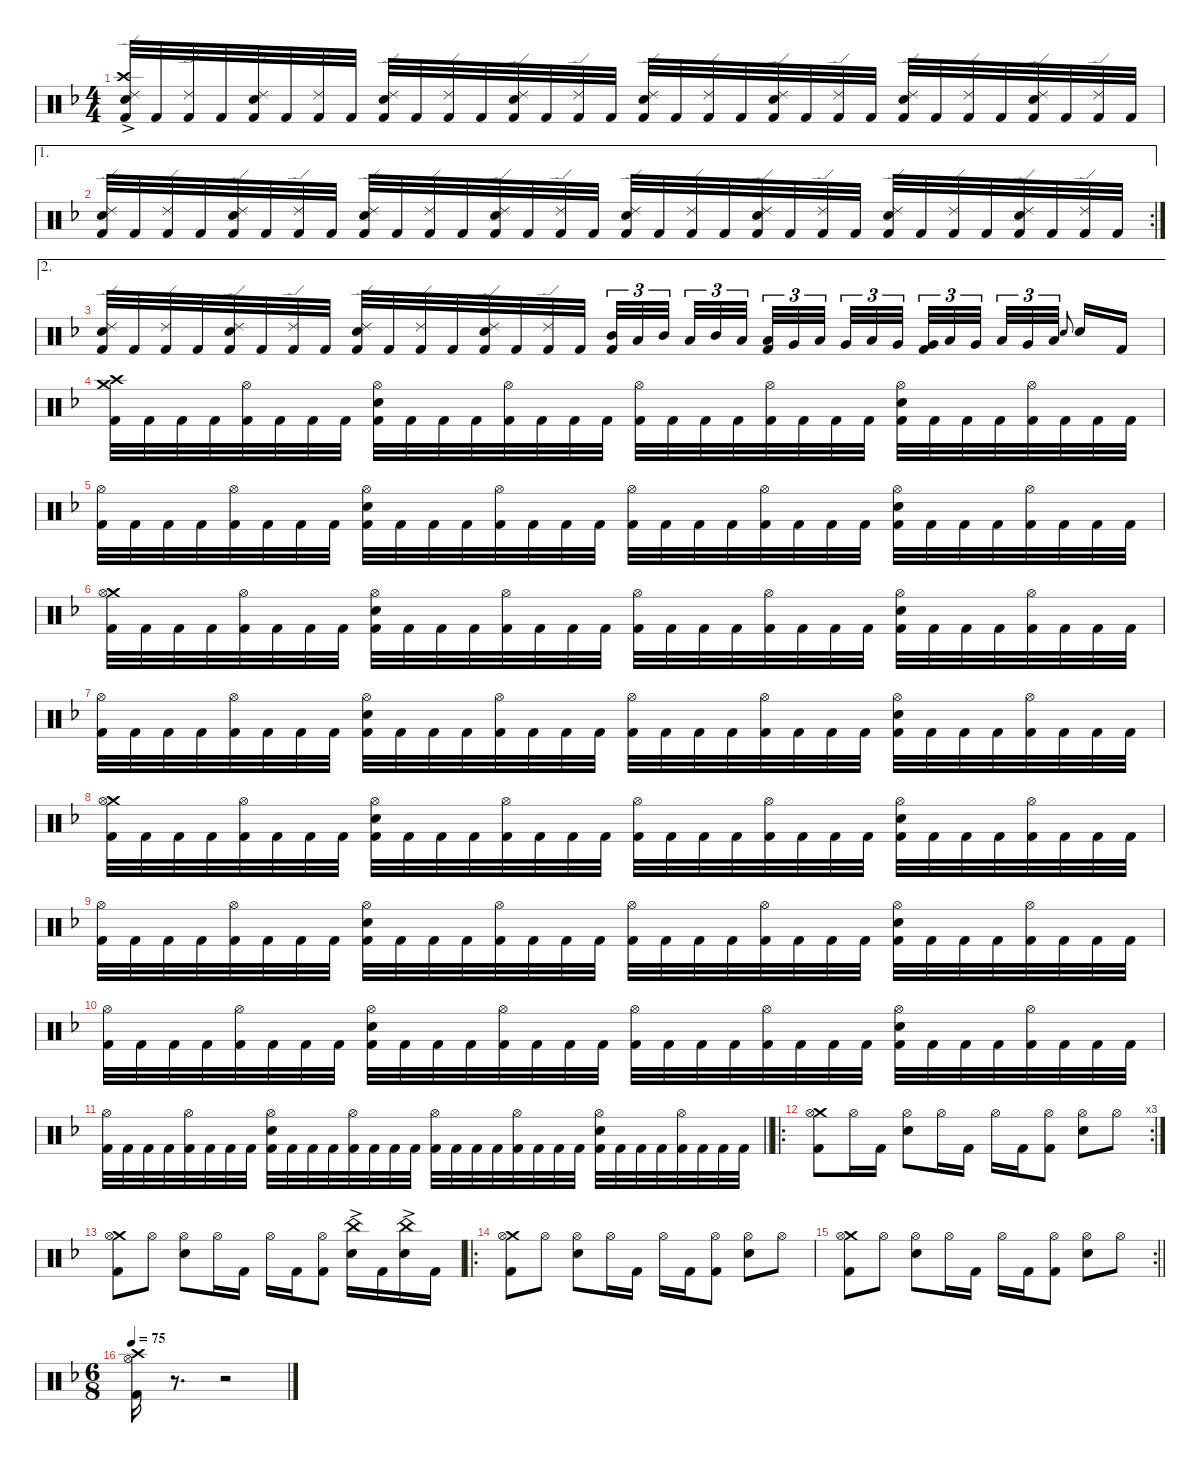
\defaultSystemsLayout 4
\hideDynamics
\bracketExtendMode nobrackets
\singleTrackTrackNamePolicy hidden
\multiTrackTrackNamePolicy hidden
\otherSystemsTrackNameOrientation horizontal
\track ("Martin Lopez - Drums" "drm.") {defaultSystemsLayout 4 instrument percussion}
\staff {score}
\articulation defaults
\ts (4 4)
\tempo (85 hide)
\clef neutral
\ks dminor
("Ride (edge) 2"{acc forcenatural} "Crash high (hit)"{ac acc forcenatural} "Snare (hit) 2"{acc forcenatural} "Kick (hit) 2"{acc forcenatural}).32{dy f beam Up} "Kick (hit) 2"{acc forcenatural}.32{beam Up} ("Ride (edge) 2"{acc forcenatural} "Kick (hit) 2"{acc forcenatural}).32{beam Up} "Kick (hit) 2"{acc forcenatural}.32{beam Up} ("Ride (edge) 2"{acc forcenatural} "Snare (hit) 2"{acc forcenatural} "Kick (hit) 2"{acc forcenatural}).32{beam Up} "Kick (hit) 2"{acc forcenatural}.32{beam Up} ("Ride (edge) 2"{acc forcenatural} "Kick (hit) 2"{acc forcenatural}).32{beam Up} "Kick (hit) 2"{acc forcenatural}.32{beam Up} ("Ride (edge) 2"{acc forcenatural} "Snare (hit) 2"{acc forcenatural} "Kick (hit) 2"{acc forcenatural}).32{beam Up} "Kick (hit) 2"{acc forcenatural}.32{beam Up} ("Ride (edge) 2"{acc forcenatural} "Kick (hit) 2"{acc forcenatural}).32{beam Up} "Kick (hit) 2"{acc forcenatural}.32{beam Up} ("Ride (edge) 2"{acc forcenatural} "Snare (hit) 2"{acc forcenatural} "Kick (hit) 2"{acc forcenatural}).32{beam Up} "Kick (hit) 2"{acc forcenatural}.32{beam Up} ("Ride (edge) 2"{acc forcenatural} "Kick (hit) 2"{acc forcenatural}).32{beam Up} "Kick (hit) 2"{acc forcenatural}.32{beam Up} ("Ride (edge) 2"{acc forcenatural} "Snare (hit) 2"{acc forcenatural} "Kick (hit) 2"{acc forcenatural}).32{beam Up} "Kick (hit) 2"{acc forcenatural}.32{beam Up} ("Ride (edge) 2"{acc forcenatural} "Kick (hit) 2"{acc forcenatural}).32{beam Up} "Kick (hit) 2"{acc forcenatural}.32{beam Up} ("Ride (edge) 2"{acc forcenatural} "Snare (hit) 2"{acc forcenatural} "Kick (hit) 2"{acc forcenatural}).32{beam Up} "Kick (hit) 2"{acc forcenatural}.32{beam Up} ("Ride (edge) 2"{acc forcenatural} "Kick (hit) 2"{acc forcenatural}).32{beam Up} "Kick (hit) 2"{acc forcenatural}.32{beam Up} ("Ride (edge) 2"{acc forcenatural} "Snare (hit) 2"{acc forcenatural} "Kick (hit) 2"{acc forcenatural}).32{beam Up} "Kick (hit) 2"{acc forcenatural}.32{beam Up} ("Ride (edge) 2"{acc forcenatural} "Kick (hit) 2"{acc forcenatural}).32{beam Up} "Kick (hit) 2"{acc forcenatural}.32{beam Up} ("Ride (edge) 2"{acc forcenatural} "Snare (hit) 2"{acc forcenatural} "Kick (hit) 2"{acc forcenatural}).32{beam Up} "Kick (hit) 2"{acc forcenatural}.32{beam Up} ("Ride (edge) 2"{acc forcenatural} "Kick (hit) 2"{acc forcenatural}).32{beam Up} "Kick (hit) 2"{acc forcenatural}.32{beam Up} |
\ae 1
\rc 2
\tempo (84 hide)
("Ride (edge) 2"{acc forcenatural} "Snare (hit) 2"{acc forcenatural} "Kick (hit) 2"{acc forcenatural}).32{beam Up} "Kick (hit) 2"{acc forcenatural}.32{beam Up} ("Ride (edge) 2"{acc forcenatural} "Kick (hit) 2"{acc forcenatural}).32{beam Up} "Kick (hit) 2"{acc forcenatural}.32{beam Up} ("Ride (edge) 2"{acc forcenatural} "Snare (hit) 2"{acc forcenatural} "Kick (hit) 2"{acc forcenatural}).32{beam Up} "Kick (hit) 2"{acc forcenatural}.32{beam Up} ("Ride (edge) 2"{acc forcenatural} "Kick (hit) 2"{acc forcenatural}).32{beam Up} "Kick (hit) 2"{acc forcenatural}.32{beam Up} ("Ride (edge) 2"{acc forcenatural} "Snare (hit) 2"{acc forcenatural} "Kick (hit) 2"{acc forcenatural}).32{beam Up} "Kick (hit) 2"{acc forcenatural}.32{beam Up} ("Ride (edge) 2"{acc forcenatural} "Kick (hit) 2"{acc forcenatural}).32{beam Up} "Kick (hit) 2"{acc forcenatural}.32{beam Up} ("Ride (edge) 2"{acc forcenatural} "Snare (hit) 2"{acc forcenatural} "Kick (hit) 2"{acc forcenatural}).32{beam Up} "Kick (hit) 2"{acc forcenatural}.32{beam Up} ("Ride (edge) 2"{acc forcenatural} "Kick (hit) 2"{acc forcenatural}).32{beam Up} "Kick (hit) 2"{acc forcenatural}.32{beam Up} ("Ride (edge) 2"{acc forcenatural} "Snare (hit) 2"{acc forcenatural} "Kick (hit) 2"{acc forcenatural}).32{beam Up} "Kick (hit) 2"{acc forcenatural}.32{beam Up} ("Ride (edge) 2"{acc forcenatural} "Kick (hit) 2"{acc forcenatural}).32{beam Up} "Kick (hit) 2"{acc forcenatural}.32{beam Up} ("Ride (edge) 2"{acc forcenatural} "Snare (hit) 2"{acc forcenatural} "Kick (hit) 2"{acc forcenatural}).32{beam Up} "Kick (hit) 2"{acc forcenatural}.32{beam Up} ("Ride (edge) 2"{acc forcenatural} "Kick (hit) 2"{acc forcenatural}).32{beam Up} "Kick (hit) 2"{acc forcenatural}.32{beam Up} ("Ride (edge) 2"{acc forcenatural} "Snare (hit) 2"{acc forcenatural} "Kick (hit) 2"{acc forcenatural}).32{beam Up} "Kick (hit) 2"{acc forcenatural}.32{beam Up} ("Ride (edge) 2"{acc forcenatural} "Kick (hit) 2"{acc forcenatural}).32{beam Up} "Kick (hit) 2"{acc forcenatural}.32{beam Up} ("Ride (edge) 2"{acc forcenatural} "Snare (hit) 2"{acc forcenatural} "Kick (hit) 2"{acc forcenatural}).32{beam Up} "Kick (hit) 2"{acc forcenatural}.32{beam Up} ("Ride (edge) 2"{acc forcenatural} "Kick (hit) 2"{acc forcenatural}).32{beam Up} "Kick (hit) 2"{acc forcenatural}.32{beam Up} |
\ae 2
\tempo (85 hide)
("Ride (edge) 2"{acc forcenatural} "Snare (hit) 2"{acc forcenatural} "Kick (hit) 2"{acc forcenatural}).32{beam Up} "Kick (hit) 2"{acc forcenatural}.32{beam Up} ("Ride (edge) 2"{acc forcenatural} "Kick (hit) 2"{acc forcenatural}).32{beam Up} "Kick (hit) 2"{acc forcenatural}.32{beam Up} ("Ride (edge) 2"{acc forcenatural} "Snare (hit) 2"{acc forcenatural} "Kick (hit) 2"{acc forcenatural}).32{beam Up} "Kick (hit) 2"{acc forcenatural}.32{beam Up} ("Ride (edge) 2"{acc forcenatural} "Kick (hit) 2"{acc forcenatural}).32{beam Up} "Kick (hit) 2"{acc forcenatural}.32{beam Up} ("Ride (edge) 2"{acc forcenatural} "Snare (hit) 2"{acc forcenatural} "Kick (hit) 2"{acc forcenatural}).32{beam Up} "Kick (hit) 2"{acc forcenatural}.32{beam Up} ("Ride (edge) 2"{acc forcenatural} "Kick (hit) 2"{acc forcenatural}).32{beam Up} "Kick (hit) 2"{acc forcenatural}.32{beam Up} ("Ride (edge) 2"{acc forcenatural} "Snare (hit) 2"{acc forcenatural} "Kick (hit) 2"{acc forcenatural}).32{beam Up} "Kick (hit) 2"{acc forcenatural}.32{beam Up} ("Ride (edge) 2"{acc forcenatural} "Kick (hit) 2"{acc forcenatural}).32{beam Up} "Kick (hit) 2"{acc forcenatural}.32{beam Up} ("Mid Tom (hit)"{acc forcenatural} "Kick (hit) 2"{acc forcenatural}).32{tu (3 2) beam Up} "Low Tom (hit)"{acc forcenatural}.32{tu (3 2) beam Up} "Mid Tom (hit)"{acc forcenatural}.32{tu (3 2) beam Up} "Low Tom (hit)"{acc forcenatural}.32{tu (3 2) beam Up} "Mid Tom (hit)"{acc forcenatural}.32{tu (3 2) beam Up} "Low Tom (hit)"{acc forcenatural}.32{tu (3 2) beam Up} ("Low Tom (hit)"{acc forcenatural} "Kick (hit) 2"{acc forcenatural}).32{tu (3 2) beam Up} "Very Low Tom (hit)"{acc forcenatural}.32{tu (3 2) beam Up} "Low Tom (hit)"{acc forcenatural}.32{tu (3 2) beam Up} "Very Low Tom (hit)"{acc forcenatural}.32{tu (3 2) beam Up} "Low Tom (hit)"{acc forcenatural}.32{tu (3 2) beam Up} "Very Low Tom (hit)"{acc forcenatural}.32{tu (3 2) beam Up} ("Very Low Tom (hit)"{acc forcenatural} "Kick (hit) 2"{acc forcenatural}).32{tu (3 2) beam Up} "Low Floor Tom (hit)"{acc forcenatural}.32{tu (3 2) beam Up} "Very Low Tom (hit)"{acc forcenatural}.32{tu (3 2) beam Up} "Low Floor Tom (hit)"{acc forcenatural}.32{tu (3 2) beam Up} "Very Low Tom (hit)"{acc forcenatural}.32{tu (3 2) beam Up} "Low Floor Tom (hit)"{acc forcenatural}.32{tu (3 2) beam Up} "Electric Snare (hit)"{acc forcenatural}.8{gr onbeat dy mp beam Up} "Snare (hit) 2"{acc forcenatural}.16{dy f beam Up} "Kick (hit) 2"{acc forcenatural}.16{dy fff beam Up} |
\tempo (84 0.00625 hide)
("Crash medium (hit)"{acc forcenatural} "Crash high (hit)"{acc forcenatural} "Kick (hit) 2"{acc forcenatural}).32{dy f beam Down} "Kick (hit) 2"{acc forcenatural}.32{beam Down} "Kick (hit) 2"{acc forcenatural}.32{beam Down} "Kick (hit) 2"{acc forcenatural}.32{beam Down} ("Hi-Hat (open)"{acc forcenatural} "Kick (hit) 2"{acc forcenatural}).32{beam Down} "Kick (hit) 2"{acc forcenatural}.32{beam Down} "Kick (hit) 2"{acc forcenatural}.32{beam Down} "Kick (hit) 2"{acc forcenatural}.32{beam Down} ("Hi-Hat (open)"{acc forcenatural} "Snare (hit) 2"{acc forcenatural} "Kick (hit) 2"{acc forcenatural}).32{beam Down} "Kick (hit) 2"{acc forcenatural}.32{beam Down} "Kick (hit) 2"{acc forcenatural}.32{beam Down} "Kick (hit) 2"{acc forcenatural}.32{beam Down} ("Hi-Hat (open)"{acc forcenatural} "Kick (hit) 2"{acc forcenatural}).32{beam Down} "Kick (hit) 2"{acc forcenatural}.32{beam Down} "Kick (hit) 2"{acc forcenatural}.32{beam Down} "Kick (hit) 2"{acc forcenatural}.32{beam Down} ("Hi-Hat (open)"{acc forcenatural} "Kick (hit) 2"{acc forcenatural}).32{beam Down} "Kick (hit) 2"{acc forcenatural}.32{beam Down} "Kick (hit) 2"{acc forcenatural}.32{beam Down} "Kick (hit) 2"{acc forcenatural}.32{beam Down} ("Hi-Hat (open)"{acc forcenatural} "Kick (hit) 2"{acc forcenatural}).32{beam Down} "Kick (hit) 2"{acc forcenatural}.32{beam Down} "Kick (hit) 2"{acc forcenatural}.32{beam Down} "Kick (hit) 2"{acc forcenatural}.32{beam Down} ("Hi-Hat (open)"{acc forcenatural} "Snare (hit) 2"{acc forcenatural} "Kick (hit) 2"{acc forcenatural}).32{beam Down} "Kick (hit) 2"{acc forcenatural}.32{beam Down} "Kick (hit) 2"{acc forcenatural}.32{beam Down} "Kick (hit) 2"{acc forcenatural}.32{beam Down} ("Hi-Hat (open)"{acc forcenatural} "Kick (hit) 2"{acc forcenatural}).32{beam Down} "Kick (hit) 2"{acc forcenatural}.32{beam Down} "Kick (hit) 2"{acc forcenatural}.32{beam Down} "Kick (hit) 2"{acc forcenatural}.32{beam Down} |
\tempo (85 0.00625 hide)
("Hi-Hat (open)"{acc forcenatural} "Kick (hit) 2"{acc forcenatural}).32{beam Down} "Kick (hit) 2"{acc forcenatural}.32{beam Down} "Kick (hit) 2"{acc forcenatural}.32{beam Down} "Kick (hit) 2"{acc forcenatural}.32{beam Down} ("Hi-Hat (open)"{acc forcenatural} "Kick (hit) 2"{acc forcenatural}).32{beam Down} "Kick (hit) 2"{acc forcenatural}.32{beam Down} "Kick (hit) 2"{acc forcenatural}.32{beam Down} "Kick (hit) 2"{acc forcenatural}.32{beam Down} ("Hi-Hat (open)"{acc forcenatural} "Snare (hit) 2"{acc forcenatural} "Kick (hit) 2"{acc forcenatural}).32{beam Down} "Kick (hit) 2"{acc forcenatural}.32{beam Down} "Kick (hit) 2"{acc forcenatural}.32{beam Down} "Kick (hit) 2"{acc forcenatural}.32{beam Down} ("Hi-Hat (open)"{acc forcenatural} "Kick (hit) 2"{acc forcenatural}).32{beam Down} "Kick (hit) 2"{acc forcenatural}.32{beam Down} "Kick (hit) 2"{acc forcenatural}.32{beam Down} "Kick (hit) 2"{acc forcenatural}.32{beam Down} ("Hi-Hat (open)"{acc forcenatural} "Kick (hit) 2"{acc forcenatural}).32{beam Down} "Kick (hit) 2"{acc forcenatural}.32{beam Down} "Kick (hit) 2"{acc forcenatural}.32{beam Down} "Kick (hit) 2"{acc forcenatural}.32{beam Down} ("Hi-Hat (open)"{acc forcenatural} "Kick (hit) 2"{acc forcenatural}).32{beam Down} "Kick (hit) 2"{acc forcenatural}.32{beam Down} "Kick (hit) 2"{acc forcenatural}.32{beam Down} "Kick (hit) 2"{acc forcenatural}.32{beam Down} ("Hi-Hat (open)"{acc forcenatural} "Snare (hit) 2"{acc forcenatural} "Kick (hit) 2"{acc forcenatural}).32{beam Down} "Kick (hit) 2"{acc forcenatural}.32{beam Down} "Kick (hit) 2"{acc forcenatural}.32{beam Down} "Kick (hit) 2"{acc forcenatural}.32{beam Down} ("Hi-Hat (open)"{acc forcenatural} "Kick (hit) 2"{acc forcenatural}).32{beam Down} "Kick (hit) 2"{acc forcenatural}.32{beam Down} "Kick (hit) 2"{acc forcenatural}.32{beam Down} "Kick (hit) 2"{acc forcenatural}.32{beam Down} |
\tempo (84 0.00625 hide)
("Crash medium (hit)"{acc forcenatural} "Hi-Hat (open)"{acc forcenatural} "Kick (hit) 2"{acc forcenatural}).32{beam Down} "Kick (hit) 2"{acc forcenatural}.32{beam Down} "Kick (hit) 2"{acc forcenatural}.32{beam Down} "Kick (hit) 2"{acc forcenatural}.32{beam Down} ("Hi-Hat (open)"{acc forcenatural} "Kick (hit) 2"{acc forcenatural}).32{beam Down} "Kick (hit) 2"{acc forcenatural}.32{beam Down} "Kick (hit) 2"{acc forcenatural}.32{beam Down} "Kick (hit) 2"{acc forcenatural}.32{beam Down} ("Hi-Hat (open)"{acc forcenatural} "Snare (hit) 2"{acc forcenatural} "Kick (hit) 2"{acc forcenatural}).32{beam Down} "Kick (hit) 2"{acc forcenatural}.32{beam Down} "Kick (hit) 2"{acc forcenatural}.32{beam Down} "Kick (hit) 2"{acc forcenatural}.32{beam Down} ("Hi-Hat (open)"{acc forcenatural} "Kick (hit) 2"{acc forcenatural}).32{beam Down} "Kick (hit) 2"{acc forcenatural}.32{beam Down} "Kick (hit) 2"{acc forcenatural}.32{beam Down} "Kick (hit) 2"{acc forcenatural}.32{beam Down} ("Hi-Hat (open)"{acc forcenatural} "Kick (hit) 2"{acc forcenatural}).32{beam Down} "Kick (hit) 2"{acc forcenatural}.32{beam Down} "Kick (hit) 2"{acc forcenatural}.32{beam Down} "Kick (hit) 2"{acc forcenatural}.32{beam Down} ("Hi-Hat (open)"{acc forcenatural} "Kick (hit) 2"{acc forcenatural}).32{beam Down} "Kick (hit) 2"{acc forcenatural}.32{beam Down} "Kick (hit) 2"{acc forcenatural}.32{beam Down} "Kick (hit) 2"{acc forcenatural}.32{beam Down} ("Hi-Hat (open)"{acc forcenatural} "Snare (hit) 2"{acc forcenatural} "Kick (hit) 2"{acc forcenatural}).32{beam Down} "Kick (hit) 2"{acc forcenatural}.32{beam Down} "Kick (hit) 2"{acc forcenatural}.32{beam Down} "Kick (hit) 2"{acc forcenatural}.32{beam Down} ("Hi-Hat (open)"{acc forcenatural} "Kick (hit) 2"{acc forcenatural}).32{beam Down} "Kick (hit) 2"{acc forcenatural}.32{beam Down} "Kick (hit) 2"{acc forcenatural}.32{beam Down} "Kick (hit) 2"{acc forcenatural}.32{beam Down} |
\tempo (85 hide)
("Hi-Hat (open)"{acc forcenatural} "Kick (hit) 2"{acc forcenatural}).32{beam Down} "Kick (hit) 2"{acc forcenatural}.32{beam Down} "Kick (hit) 2"{acc forcenatural}.32{beam Down} "Kick (hit) 2"{acc forcenatural}.32{beam Down} ("Hi-Hat (open)"{acc forcenatural} "Kick (hit) 2"{acc forcenatural}).32{beam Down} "Kick (hit) 2"{acc forcenatural}.32{beam Down} "Kick (hit) 2"{acc forcenatural}.32{beam Down} "Kick (hit) 2"{acc forcenatural}.32{beam Down} ("Hi-Hat (open)"{acc forcenatural} "Snare (hit) 2"{acc forcenatural} "Kick (hit) 2"{acc forcenatural}).32{beam Down} "Kick (hit) 2"{acc forcenatural}.32{beam Down} "Kick (hit) 2"{acc forcenatural}.32{beam Down} "Kick (hit) 2"{acc forcenatural}.32{beam Down} ("Hi-Hat (open)"{acc forcenatural} "Kick (hit) 2"{acc forcenatural}).32{beam Down} "Kick (hit) 2"{acc forcenatural}.32{beam Down} "Kick (hit) 2"{acc forcenatural}.32{beam Down} "Kick (hit) 2"{acc forcenatural}.32{beam Down} ("Hi-Hat (open)"{acc forcenatural} "Kick (hit) 2"{acc forcenatural}).32{beam Down} "Kick (hit) 2"{acc forcenatural}.32{beam Down} "Kick (hit) 2"{acc forcenatural}.32{beam Down} "Kick (hit) 2"{acc forcenatural}.32{beam Down} ("Hi-Hat (open)"{acc forcenatural} "Kick (hit) 2"{acc forcenatural}).32{beam Down} "Kick (hit) 2"{acc forcenatural}.32{beam Down} "Kick (hit) 2"{acc forcenatural}.32{beam Down} "Kick (hit) 2"{acc forcenatural}.32{beam Down} ("Hi-Hat (open)"{acc forcenatural} "Snare (hit) 2"{acc forcenatural} "Kick (hit) 2"{acc forcenatural}).32{beam Down} "Kick (hit) 2"{acc forcenatural}.32{beam Down} "Kick (hit) 2"{acc forcenatural}.32{beam Down} "Kick (hit) 2"{acc forcenatural}.32{beam Down} ("Hi-Hat (open)"{acc forcenatural} "Kick (hit) 2"{acc forcenatural}).32{beam Down} "Kick (hit) 2"{acc forcenatural}.32{beam Down} "Kick (hit) 2"{acc forcenatural}.32{beam Down} "Kick (hit) 2"{acc forcenatural}.32{beam Down} |
\tempo (84 0.00625 hide)
("Crash medium (hit)"{acc forcenatural} "Hi-Hat (open)"{acc forcenatural} "Kick (hit) 2"{acc forcenatural}).32{beam Down} "Kick (hit) 2"{acc forcenatural}.32{beam Down} "Kick (hit) 2"{acc forcenatural}.32{beam Down} "Kick (hit) 2"{acc forcenatural}.32{beam Down} ("Hi-Hat (open)"{acc forcenatural} "Kick (hit) 2"{acc forcenatural}).32{beam Down} "Kick (hit) 2"{acc forcenatural}.32{beam Down} "Kick (hit) 2"{acc forcenatural}.32{beam Down} "Kick (hit) 2"{acc forcenatural}.32{beam Down} ("Hi-Hat (open)"{acc forcenatural} "Snare (hit) 2"{acc forcenatural} "Kick (hit) 2"{acc forcenatural}).32{beam Down} "Kick (hit) 2"{acc forcenatural}.32{beam Down} "Kick (hit) 2"{acc forcenatural}.32{beam Down} "Kick (hit) 2"{acc forcenatural}.32{beam Down} ("Hi-Hat (open)"{acc forcenatural} "Kick (hit) 2"{acc forcenatural}).32{beam Down} "Kick (hit) 2"{acc forcenatural}.32{beam Down} "Kick (hit) 2"{acc forcenatural}.32{beam Down} "Kick (hit) 2"{acc forcenatural}.32{beam Down} ("Hi-Hat (open)"{acc forcenatural} "Kick (hit) 2"{acc forcenatural}).32{beam Down} "Kick (hit) 2"{acc forcenatural}.32{beam Down} "Kick (hit) 2"{acc forcenatural}.32{beam Down} "Kick (hit) 2"{acc forcenatural}.32{beam Down} ("Hi-Hat (open)"{acc forcenatural} "Kick (hit) 2"{acc forcenatural}).32{beam Down} "Kick (hit) 2"{acc forcenatural}.32{beam Down} "Kick (hit) 2"{acc forcenatural}.32{beam Down} "Kick (hit) 2"{acc forcenatural}.32{beam Down} ("Hi-Hat (open)"{acc forcenatural} "Snare (hit) 2"{acc forcenatural} "Kick (hit) 2"{acc forcenatural}).32{beam Down} "Kick (hit) 2"{acc forcenatural}.32{beam Down} "Kick (hit) 2"{acc forcenatural}.32{beam Down} "Kick (hit) 2"{acc forcenatural}.32{beam Down} ("Hi-Hat (open)"{acc forcenatural} "Kick (hit) 2"{acc forcenatural}).32{beam Down} "Kick (hit) 2"{acc forcenatural}.32{beam Down} "Kick (hit) 2"{acc forcenatural}.32{beam Down} "Kick (hit) 2"{acc forcenatural}.32{beam Down} |
\tempo (85 0.00625 hide)
("Hi-Hat (open)"{acc forcenatural} "Kick (hit) 2"{acc forcenatural}).32{beam Down} "Kick (hit) 2"{acc forcenatural}.32{beam Down} "Kick (hit) 2"{acc forcenatural}.32{beam Down} "Kick (hit) 2"{acc forcenatural}.32{beam Down} ("Hi-Hat (open)"{acc forcenatural} "Kick (hit) 2"{acc forcenatural}).32{beam Down} "Kick (hit) 2"{acc forcenatural}.32{beam Down} "Kick (hit) 2"{acc forcenatural}.32{beam Down} "Kick (hit) 2"{acc forcenatural}.32{beam Down} ("Hi-Hat (open)"{acc forcenatural} "Snare (hit) 2"{acc forcenatural} "Kick (hit) 2"{acc forcenatural}).32{beam Down} "Kick (hit) 2"{acc forcenatural}.32{beam Down} "Kick (hit) 2"{acc forcenatural}.32{beam Down} "Kick (hit) 2"{acc forcenatural}.32{beam Down} ("Hi-Hat (open)"{acc forcenatural} "Kick (hit) 2"{acc forcenatural}).32{beam Down} "Kick (hit) 2"{acc forcenatural}.32{beam Down} "Kick (hit) 2"{acc forcenatural}.32{beam Down} "Kick (hit) 2"{acc forcenatural}.32{beam Down} ("Hi-Hat (open)"{acc forcenatural} "Kick (hit) 2"{acc forcenatural}).32{beam Down} "Kick (hit) 2"{acc forcenatural}.32{beam Down} "Kick (hit) 2"{acc forcenatural}.32{beam Down} "Kick (hit) 2"{acc forcenatural}.32{beam Down} ("Hi-Hat (open)"{acc forcenatural} "Kick (hit) 2"{acc forcenatural}).32{beam Down} "Kick (hit) 2"{acc forcenatural}.32{beam Down} "Kick (hit) 2"{acc forcenatural}.32{beam Down} "Kick (hit) 2"{acc forcenatural}.32{beam Down} ("Hi-Hat (open)"{acc forcenatural} "Snare (hit) 2"{acc forcenatural} "Kick (hit) 2"{acc forcenatural}).32{beam Down} "Kick (hit) 2"{acc forcenatural}.32{beam Down} "Kick (hit) 2"{acc forcenatural}.32{beam Down} "Kick (hit) 2"{acc forcenatural}.32{beam Down} ("Hi-Hat (open)"{acc forcenatural} "Kick (hit) 2"{acc forcenatural}).32{beam Down} "Kick (hit) 2"{acc forcenatural}.32{beam Down} "Kick (hit) 2"{acc forcenatural}.32{beam Down} "Kick (hit) 2"{acc forcenatural}.32{beam Down} |
\tempo (84 hide)
("Hi-Hat (open)"{acc forcenatural} "Kick (hit) 2"{acc forcenatural}).32{beam Down} "Kick (hit) 2"{acc forcenatural}.32{beam Down} "Kick (hit) 2"{acc forcenatural}.32{beam Down} "Kick (hit) 2"{acc forcenatural}.32{beam Down} ("Hi-Hat (open)"{acc forcenatural} "Kick (hit) 2"{acc forcenatural}).32{beam Down} "Kick (hit) 2"{acc forcenatural}.32{beam Down} "Kick (hit) 2"{acc forcenatural}.32{beam Down} "Kick (hit) 2"{acc forcenatural}.32{beam Down} ("Hi-Hat (open)"{acc forcenatural} "Snare (hit) 2"{acc forcenatural} "Kick (hit) 2"{acc forcenatural}).32{beam Down} "Kick (hit) 2"{acc forcenatural}.32{beam Down} "Kick (hit) 2"{acc forcenatural}.32{beam Down} "Kick (hit) 2"{acc forcenatural}.32{beam Down} ("Hi-Hat (open)"{acc forcenatural} "Kick (hit) 2"{acc forcenatural}).32{beam Down} "Kick (hit) 2"{acc forcenatural}.32{beam Down} "Kick (hit) 2"{acc forcenatural}.32{beam Down} "Kick (hit) 2"{acc forcenatural}.32{beam Down} ("Hi-Hat (open)"{acc forcenatural} "Kick (hit) 2"{acc forcenatural}).32{beam Down} "Kick (hit) 2"{acc forcenatural}.32{beam Down} "Kick (hit) 2"{acc forcenatural}.32{beam Down} "Kick (hit) 2"{acc forcenatural}.32{beam Down} ("Hi-Hat (open)"{acc forcenatural} "Kick (hit) 2"{acc forcenatural}).32{beam Down} "Kick (hit) 2"{acc forcenatural}.32{beam Down} "Kick (hit) 2"{acc forcenatural}.32{beam Down} "Kick (hit) 2"{acc forcenatural}.32{beam Down} ("Hi-Hat (open)"{acc forcenatural} "Snare (hit) 2"{acc forcenatural} "Kick (hit) 2"{acc forcenatural}).32{beam Down} "Kick (hit) 2"{acc forcenatural}.32{beam Down} "Kick (hit) 2"{acc forcenatural}.32{beam Down} "Kick (hit) 2"{acc forcenatural}.32{beam Down} ("Hi-Hat (open)"{acc forcenatural} "Kick (hit) 2"{acc forcenatural}).32{beam Down} "Kick (hit) 2"{acc forcenatural}.32{beam Down} "Kick (hit) 2"{acc forcenatural}.32{beam Down} "Kick (hit) 2"{acc forcenatural}.32{beam Down} |
\tempo (85 0.00625 hide)
\barLineRight lightlight
("Hi-Hat (open)"{acc forcenatural} "Kick (hit) 2"{acc forcenatural}).32{beam Down} "Kick (hit) 2"{acc forcenatural}.32{beam Down} "Kick (hit) 2"{acc forcenatural}.32{beam Down} "Kick (hit) 2"{acc forcenatural}.32{beam Down} ("Hi-Hat (open)"{acc forcenatural} "Kick (hit) 2"{acc forcenatural}).32{beam Down} "Kick (hit) 2"{acc forcenatural}.32{beam Down} "Kick (hit) 2"{acc forcenatural}.32{beam Down} "Kick (hit) 2"{acc forcenatural}.32{beam Down} ("Hi-Hat (open)"{acc forcenatural} "Snare (hit) 2"{acc forcenatural} "Kick (hit) 2"{acc forcenatural}).32{beam Down} "Kick (hit) 2"{acc forcenatural}.32{beam Down} "Kick (hit) 2"{acc forcenatural}.32{beam Down} "Kick (hit) 2"{acc forcenatural}.32{beam Down} ("Hi-Hat (open)"{acc forcenatural} "Kick (hit) 2"{acc forcenatural}).32{beam Down} "Kick (hit) 2"{acc forcenatural}.32{beam Down} "Kick (hit) 2"{acc forcenatural}.32{beam Down} "Kick (hit) 2"{acc forcenatural}.32{beam Down} ("Hi-Hat (open)"{acc forcenatural} "Kick (hit) 2"{acc forcenatural}).32{beam Down} "Kick (hit) 2"{acc forcenatural}.32{beam Down} "Kick (hit) 2"{acc forcenatural}.32{beam Down} "Kick (hit) 2"{acc forcenatural}.32{beam Down} ("Hi-Hat (open)"{acc forcenatural} "Kick (hit) 2"{acc forcenatural}).32{beam Down} "Kick (hit) 2"{acc forcenatural}.32{beam Down} "Kick (hit) 2"{acc forcenatural}.32{beam Down} "Kick (hit) 2"{acc forcenatural}.32{beam Down} ("Hi-Hat (open)"{acc forcenatural} "Snare (hit) 2"{acc forcenatural} "Kick (hit) 2"{acc forcenatural}).32{beam Down} "Kick (hit) 2"{acc forcenatural}.32{beam Down} "Kick (hit) 2"{acc forcenatural}.32{beam Down} "Kick (hit) 2"{acc forcenatural}.32{beam Down} ("Hi-Hat (open)"{acc forcenatural} "Kick (hit) 2"{acc forcenatural}).32{beam Down} "Kick (hit) 2"{acc forcenatural}.32{beam Down} "Kick (hit) 2"{acc forcenatural}.32{beam Down} "Kick (hit) 2"{acc forcenatural}.32{beam Down} |
\ro
\rc 3
\tempo (84 hide)
("Crash medium (hit)"{acc forcenatural} "Hi-Hat (open)"{acc forcenatural} "Kick (hit) 2"{acc forcenatural}).8{beam Down} "Hi-Hat (open)"{acc forcenatural}.16{beam Down} "Kick (hit) 2"{acc forcenatural}.16{beam Down} ("Hi-Hat (open)"{acc forcenatural} "Snare (hit) 2"{acc forcenatural}).8{beam Down} "Hi-Hat (open)"{acc forcenatural}.16{beam Down} "Kick (hit) 2"{acc forcenatural}.16{beam Down} "Hi-Hat (open)"{acc forcenatural}.16{beam Down} "Kick (hit) 2"{acc forcenatural}.16{beam Down} ("Hi-Hat (open)"{acc forcenatural} "Kick (hit) 2"{acc forcenatural}).8{beam Down} ("Hi-Hat (open)"{acc forcenatural} "Snare (hit) 2"{acc forcenatural}).8{beam Down} "Hi-Hat (open)"{acc forcenatural}.8{beam Down} |
\tempo (85 hide)
("Crash medium (hit)"{acc forcenatural} "Hi-Hat (open)"{acc forcenatural} "Kick (hit) 2"{acc forcenatural}).8{beam Down} "Hi-Hat (open)"{acc forcenatural}.8{beam Down} ("Hi-Hat (open)"{acc forcenatural} "Snare (hit) 2"{acc forcenatural}).8{beam Down} "Hi-Hat (open)"{acc forcenatural}.16{beam Down} "Kick (hit) 2"{acc forcenatural}.16{beam Down} "Hi-Hat (open)"{acc forcenatural}.16{beam Down} "Kick (hit) 2"{acc forcenatural}.16{beam Down} ("Hi-Hat (open)"{acc forcenatural} "Kick (hit) 2"{acc forcenatural}).8{beam Down} ("China (hit)"{ac acc forcenatural} "Snare (hit) 2"{ac acc forcenatural}).16{beam Down} "Kick (hit) 2"{acc forcenatural}.16{beam Down} ("China (hit)"{ac acc forcenatural} "Snare (hit) 2"{ac acc forcenatural}).16{beam Down} "Kick (hit) 2"{acc forcenatural}.16{beam Down} |
\ro
\tempo (84 hide)
("Crash medium (hit)"{acc forcenatural} "Hi-Hat (open)"{acc forcenatural} "Kick (hit) 2"{acc forcenatural}).8{beam Down} "Hi-Hat (open)"{acc forcenatural}.8{beam Down} ("Hi-Hat (open)"{acc forcenatural} "Snare (hit) 2"{acc forcenatural}).8{beam Down} "Hi-Hat (open)"{acc forcenatural}.16{beam Down} "Kick (hit) 2"{acc forcenatural}.16{beam Down} "Hi-Hat (open)"{acc forcenatural}.16{beam Down} "Kick (hit) 2"{acc forcenatural}.16{beam Down} ("Hi-Hat (open)"{acc forcenatural} "Kick (hit) 2"{acc forcenatural}).8{beam Down} ("Hi-Hat (open)"{acc forcenatural} "Snare (hit) 2"{acc forcenatural}).8{beam Down} "Hi-Hat (open)"{acc forcenatural}.8{beam Down} |
\rc 2
\tempo (85 hide)
\barLineRight lightlight
("Crash medium (hit)"{acc forcenatural} "Hi-Hat (open)"{acc forcenatural} "Kick (hit) 2"{acc forcenatural}).8{beam Down} "Hi-Hat (open)"{acc forcenatural}.8{beam Down} ("Hi-Hat (open)"{acc forcenatural} "Snare (hit) 2"{acc forcenatural}).8{beam Down} "Hi-Hat (open)"{acc forcenatural}.16{beam Down} "Kick (hit) 2"{acc forcenatural}.16{beam Down} "Hi-Hat (open)"{acc forcenatural}.16{beam Down} "Kick (hit) 2"{acc forcenatural}.16{beam Down} ("Hi-Hat (open)"{acc forcenatural} "Kick (hit) 2"{acc forcenatural}).8{beam Down} ("Hi-Hat (open)"{acc forcenatural} "Snare (hit) 2"{acc forcenatural}).8{beam Down} "Hi-Hat (open)"{acc forcenatural}.8{beam Down} |
\ts (6 8)
\beaming (8 2 2 2 2)
\tempo 75
("Crash high (hit)"{acc forcenatural} "Hi-Hat (open)"{acc forcenatural} "Kick (hit) 2"{acc forcenatural}).16{beam Down} r.8{d beam Down} r.2{beam Down}
